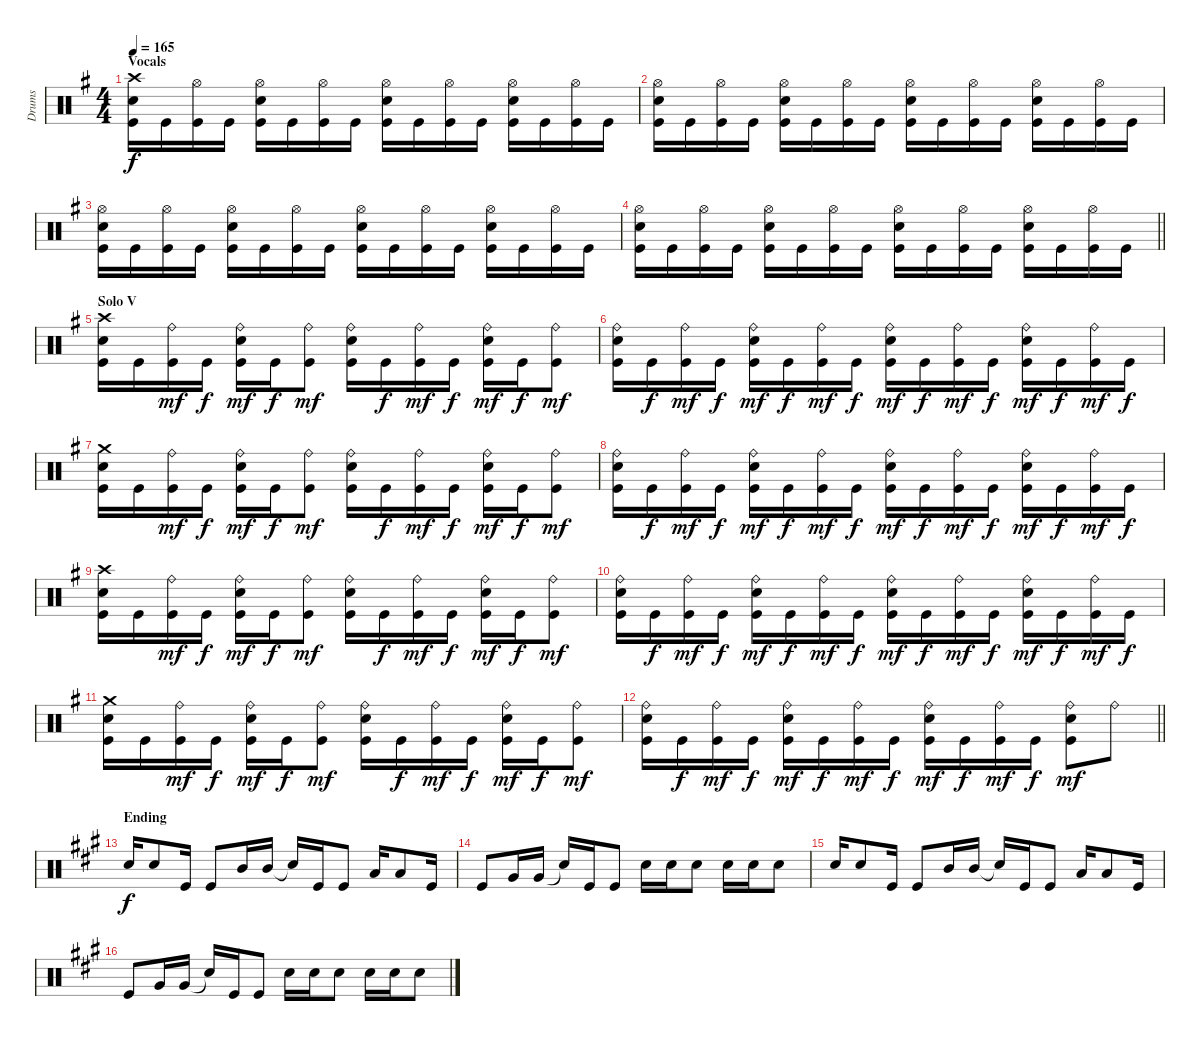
\track ("Drums" "Drums") {instrument percussion}
\staff {score}
\articulation defaults
\ts (4 4)
\section ("" "Vocals")
\tempo 165
\clef neutral
\ks eminor
("Crash high (hit)" "Snare (hit) 2" "Kick (hit)").16{dy f} "Kick (hit)".16 ("Hi-Hat (open)" "Kick (hit)").16 "Kick (hit)".16 ("Hi-Hat (open)" "Snare (hit) 2" "Kick (hit)").16 "Kick (hit)".16 ("Hi-Hat (open)" "Kick (hit)").16 "Kick (hit)".16 ("Hi-Hat (open)" "Snare (hit) 2" "Kick (hit)").16 "Kick (hit)".16 ("Hi-Hat (open)" "Kick (hit)").16 "Kick (hit)".16 ("Hi-Hat (open)" "Snare (hit) 2" "Kick (hit)").16 "Kick (hit)".16 ("Hi-Hat (open)" "Kick (hit)").16 "Kick (hit)".16 |
("Hi-Hat (open)" "Snare (hit) 2" "Kick (hit)").16 "Kick (hit)".16 ("Hi-Hat (open)" "Kick (hit)").16 "Kick (hit)".16 ("Hi-Hat (open)" "Snare (hit) 2" "Kick (hit)").16 "Kick (hit)".16 ("Hi-Hat (open)" "Kick (hit)").16 "Kick (hit)".16 ("Hi-Hat (open)" "Snare (hit) 2" "Kick (hit)").16 "Kick (hit)".16 ("Hi-Hat (open)" "Kick (hit)").16 "Kick (hit)".16 ("Hi-Hat (open)" "Snare (hit) 2" "Kick (hit)").16 "Kick (hit)".16 ("Hi-Hat (open)" "Kick (hit)").16 "Kick (hit)".16 |
("Hi-Hat (open)" "Snare (hit) 2" "Kick (hit)").16 "Kick (hit)".16 ("Hi-Hat (open)" "Kick (hit)").16 "Kick (hit)".16 ("Hi-Hat (open)" "Snare (hit) 2" "Kick (hit)").16 "Kick (hit)".16 ("Hi-Hat (open)" "Kick (hit)").16 "Kick (hit)".16 ("Hi-Hat (open)" "Snare (hit) 2" "Kick (hit)").16 "Kick (hit)".16 ("Hi-Hat (open)" "Kick (hit)").16 "Kick (hit)".16 ("Hi-Hat (open)" "Snare (hit) 2" "Kick (hit)").16 "Kick (hit)".16 ("Hi-Hat (open)" "Kick (hit)").16 "Kick (hit)".16 |
\barLineRight lightlight
("Hi-Hat (open)" "Snare (hit) 2" "Kick (hit)").16 "Kick (hit)".16 ("Hi-Hat (open)" "Kick (hit)").16 "Kick (hit)".16 ("Hi-Hat (open)" "Snare (hit) 2" "Kick (hit)").16 "Kick (hit)".16 ("Hi-Hat (open)" "Kick (hit)").16 "Kick (hit)".16 ("Hi-Hat (open)" "Snare (hit) 2" "Kick (hit)").16 "Kick (hit)".16 ("Hi-Hat (open)" "Kick (hit)").16 "Kick (hit)".16 ("Hi-Hat (open)" "Snare (hit) 2" "Kick (hit)").16 "Kick (hit)".16 ("Hi-Hat (open)" "Kick (hit)").16 "Kick (hit)".16 |
\section ("" "Solo V")
("Crash high (hit)" "Snare (hit) 2" "Kick (hit)").16 "Kick (hit)".16 ("Ride (bell)" "Kick (hit)").16{dy mf} "Kick (hit)".16{dy f} ("Ride (bell)" "Snare (hit) 2" "Kick (hit)").16{dy mf} "Kick (hit)".16{dy f} ("Ride (bell)" "Kick (hit)").8{dy mf} ("Ride (bell)" "Snare (hit) 2" "Kick (hit)").16 "Kick (hit)".16{dy f} ("Ride (bell)" "Kick (hit)").16{dy mf} "Kick (hit)".16{dy f} ("Ride (bell)" "Snare (hit) 2" "Kick (hit)").16{dy mf} "Kick (hit)".16{dy f} ("Ride (bell)" "Kick (hit)").8{dy mf} |
("Ride (bell)" "Snare (hit) 2" "Kick (hit)").16 "Kick (hit)".16{dy f} ("Ride (bell)" "Kick (hit)").16{dy mf} "Kick (hit)".16{dy f} ("Ride (bell)" "Snare (hit) 2" "Kick (hit)").16{dy mf} "Kick (hit)".16{dy f} ("Ride (bell)" "Kick (hit)").16{dy mf} "Kick (hit)".16{dy f} ("Ride (bell)" "Snare (hit) 2" "Kick (hit)").16{dy mf} "Kick (hit)".16{dy f} ("Ride (bell)" "Kick (hit)").16{dy mf} "Kick (hit)".16{dy f} ("Ride (bell)" "Snare (hit) 2" "Kick (hit)").16{dy mf} "Kick (hit)".16{dy f} ("Ride (bell)" "Kick (hit)").16{dy mf} "Kick (hit)".16{dy f} |
("Crash medium (hit)" "Snare (hit) 2" "Kick (hit)").16 "Kick (hit)".16 ("Ride (bell)" "Kick (hit)").16{dy mf} "Kick (hit)".16{dy f} ("Ride (bell)" "Snare (hit) 2" "Kick (hit)").16{dy mf} "Kick (hit)".16{dy f} ("Ride (bell)" "Kick (hit)").8{dy mf} ("Ride (bell)" "Snare (hit) 2" "Kick (hit)").16 "Kick (hit)".16{dy f} ("Ride (bell)" "Kick (hit)").16{dy mf} "Kick (hit)".16{dy f} ("Ride (bell)" "Snare (hit) 2" "Kick (hit)").16{dy mf} "Kick (hit)".16{dy f} ("Ride (bell)" "Kick (hit)").8{dy mf} |
("Ride (bell)" "Snare (hit) 2" "Kick (hit)").16 "Kick (hit)".16{dy f} ("Ride (bell)" "Kick (hit)").16{dy mf} "Kick (hit)".16{dy f} ("Ride (bell)" "Snare (hit) 2" "Kick (hit)").16{dy mf} "Kick (hit)".16{dy f} ("Ride (bell)" "Kick (hit)").16{dy mf} "Kick (hit)".16{dy f} ("Ride (bell)" "Snare (hit) 2" "Kick (hit)").16{dy mf} "Kick (hit)".16{dy f} ("Ride (bell)" "Kick (hit)").16{dy mf} "Kick (hit)".16{dy f} ("Ride (bell)" "Snare (hit) 2" "Kick (hit)").16{dy mf} "Kick (hit)".16{dy f} ("Ride (bell)" "Kick (hit)").16{dy mf} "Kick (hit)".16{dy f} |
("Crash high (hit)" "Snare (hit) 2" "Kick (hit)").16 "Kick (hit)".16 ("Ride (bell)" "Kick (hit)").16{dy mf} "Kick (hit)".16{dy f} ("Ride (bell)" "Snare (hit) 2" "Kick (hit)").16{dy mf} "Kick (hit)".16{dy f} ("Ride (bell)" "Kick (hit)").8{dy mf} ("Ride (bell)" "Snare (hit) 2" "Kick (hit)").16 "Kick (hit)".16{dy f} ("Ride (bell)" "Kick (hit)").16{dy mf} "Kick (hit)".16{dy f} ("Ride (bell)" "Snare (hit) 2" "Kick (hit)").16{dy mf} "Kick (hit)".16{dy f} ("Ride (bell)" "Kick (hit)").8{dy mf} |
("Ride (bell)" "Snare (hit) 2" "Kick (hit)").16 "Kick (hit)".16{dy f} ("Ride (bell)" "Kick (hit)").16{dy mf} "Kick (hit)".16{dy f} ("Ride (bell)" "Snare (hit) 2" "Kick (hit)").16{dy mf} "Kick (hit)".16{dy f} ("Ride (bell)" "Kick (hit)").16{dy mf} "Kick (hit)".16{dy f} ("Ride (bell)" "Snare (hit) 2" "Kick (hit)").16{dy mf} "Kick (hit)".16{dy f} ("Ride (bell)" "Kick (hit)").16{dy mf} "Kick (hit)".16{dy f} ("Ride (bell)" "Snare (hit) 2" "Kick (hit)").16{dy mf} "Kick (hit)".16{dy f} ("Ride (bell)" "Kick (hit)").16{dy mf} "Kick (hit)".16{dy f} |
("Crash medium (hit)" "Snare (hit) 2" "Kick (hit)").16 "Kick (hit)".16 ("Ride (bell)" "Kick (hit)").16{dy mf} "Kick (hit)".16{dy f} ("Ride (bell)" "Snare (hit) 2" "Kick (hit)").16{dy mf} "Kick (hit)".16{dy f} ("Ride (bell)" "Kick (hit)").8{dy mf} ("Ride (bell)" "Snare (hit) 2" "Kick (hit)").16 "Kick (hit)".16{dy f} ("Ride (bell)" "Kick (hit)").16{dy mf} "Kick (hit)".16{dy f} ("Ride (bell)" "Snare (hit) 2" "Kick (hit)").16{dy mf} "Kick (hit)".16{dy f} ("Ride (bell)" "Kick (hit)").8{dy mf} |
\barLineRight lightlight
("Ride (bell)" "Snare (hit) 2" "Kick (hit)").16 "Kick (hit)".16{dy f} ("Ride (bell)" "Kick (hit)").16{dy mf} "Kick (hit)".16{dy f} ("Ride (bell)" "Snare (hit) 2" "Kick (hit)").16{dy mf} "Kick (hit)".16{dy f} ("Ride (bell)" "Kick (hit)").16{dy mf} "Kick (hit)".16{dy f} ("Ride (bell)" "Snare (hit) 2" "Kick (hit)").16{dy mf} "Kick (hit)".16{dy f} ("Ride (bell)" "Kick (hit)").16{dy mf} "Kick (hit)".16{dy f} ("Ride (bell)" "Snare (hit) 2" "Kick (hit)").8{dy mf} "Ride (bell)".8 |
\section ("" "Ending")
\ks f#minor "Snare (hit) 2".16{dy f} "Snare (hit) 2".8 "Kick (hit)".16 "Kick (hit)".8 "Mid Tom (hit)".16 "Mid Tom (hit)".16 "Snare (hit)"{t}.16 "Kick (hit)".16 "Kick (hit)".8 "Low Tom (hit)".16 "Low Tom (hit)".8 "Kick (hit)".16
|
"Kick (hit)".8 "Very Low Tom (hit)".16 "Very Low Tom (hit)".16 "Snare (hit)"{t}.16 "Kick (hit)".16 "Kick (hit)".8 "Snare (hit) 2".16 "Snare (hit) 2".16 "Snare (hit) 2".8 "Snare (hit) 2".16 "Snare (hit) 2".16 "Snare (hit) 2".8 |
"Snare (hit) 2".16 "Snare (hit) 2".8 "Kick (hit)".16 "Kick (hit)".8 "Mid Tom (hit)".16 "Mid Tom (hit)".16 "Snare (hit)"{t}.16 "Kick (hit)".16 "Kick (hit)".8 "Low Tom (hit)".16 "Low Tom (hit)".8 "Kick (hit)".16 |
"Kick (hit)".8 "Very Low Tom (hit)".16 "Very Low Tom (hit)".16 "Snare (hit)"{t}.16 "Kick (hit)".16 "Kick (hit)".8 "Snare (hit) 2".16 "Snare (hit) 2".16 "Snare (hit) 2".8 "Snare (hit) 2".16 "Snare (hit) 2".16 "Snare (hit) 2".8
